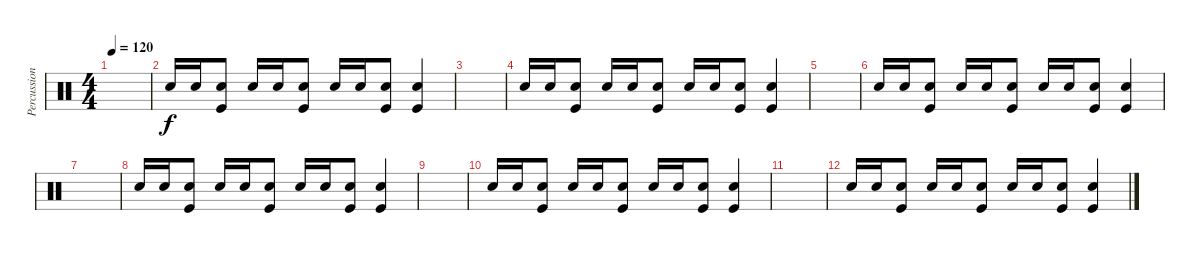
\track ("Percussion" "Percussion") {instrument percussion}
\staff {score}
\articulation defaults
\ts (4 4)
\tempo 120
\clef neutral
\ks c
|
"Electric Snare (hit)".16 "Electric Snare (hit)".16 ("Electric Snare (hit)" "Kick (hit)").8 "Electric Snare (hit)".16 "Electric Snare (hit)".16 ("Electric Snare (hit)" "Kick (hit)").8 "Electric Snare (hit)".16 "Electric Snare (hit)".16 ("Electric Snare (hit)" "Kick (hit)").8 ("Electric Snare (hit)" "Kick (hit)").4 |
|
"Electric Snare (hit)".16 "Electric Snare (hit)".16 ("Electric Snare (hit)" "Kick (hit)").8 "Electric Snare (hit)".16 "Electric Snare (hit)".16 ("Electric Snare (hit)" "Kick (hit)").8 "Electric Snare (hit)".16 "Electric Snare (hit)".16 ("Electric Snare (hit)" "Kick (hit)").8 ("Electric Snare (hit)" "Kick (hit)").4 |
|
"Electric Snare (hit)".16 "Electric Snare (hit)".16 ("Electric Snare (hit)" "Kick (hit)").8 "Electric Snare (hit)".16 "Electric Snare (hit)".16 ("Electric Snare (hit)" "Kick (hit)").8 "Electric Snare (hit)".16 "Electric Snare (hit)".16 ("Electric Snare (hit)" "Kick (hit)").8 ("Electric Snare (hit)" "Kick (hit)").4 |
|
"Electric Snare (hit)".16 "Electric Snare (hit)".16 ("Electric Snare (hit)" "Kick (hit)").8 "Electric Snare (hit)".16 "Electric Snare (hit)".16 ("Electric Snare (hit)" "Kick (hit)").8 "Electric Snare (hit)".16 "Electric Snare (hit)".16 ("Electric Snare (hit)" "Kick (hit)").8 ("Electric Snare (hit)" "Kick (hit)").4 |
|
"Electric Snare (hit)".16 "Electric Snare (hit)".16 ("Electric Snare (hit)" "Kick (hit)").8 "Electric Snare (hit)".16 "Electric Snare (hit)".16 ("Electric Snare (hit)" "Kick (hit)").8 "Electric Snare (hit)".16 "Electric Snare (hit)".16 ("Electric Snare (hit)" "Kick (hit)").8 ("Electric Snare (hit)" "Kick (hit)").4 |
|
"Electric Snare (hit)".16 "Electric Snare (hit)".16 ("Electric Snare (hit)" "Kick (hit)").8 "Electric Snare (hit)".16 "Electric Snare (hit)".16 ("Electric Snare (hit)" "Kick (hit)").8 "Electric Snare (hit)".16 "Electric Snare (hit)".16 ("Electric Snare (hit)" "Kick (hit)").8 ("Electric Snare (hit)" "Kick (hit)").4
